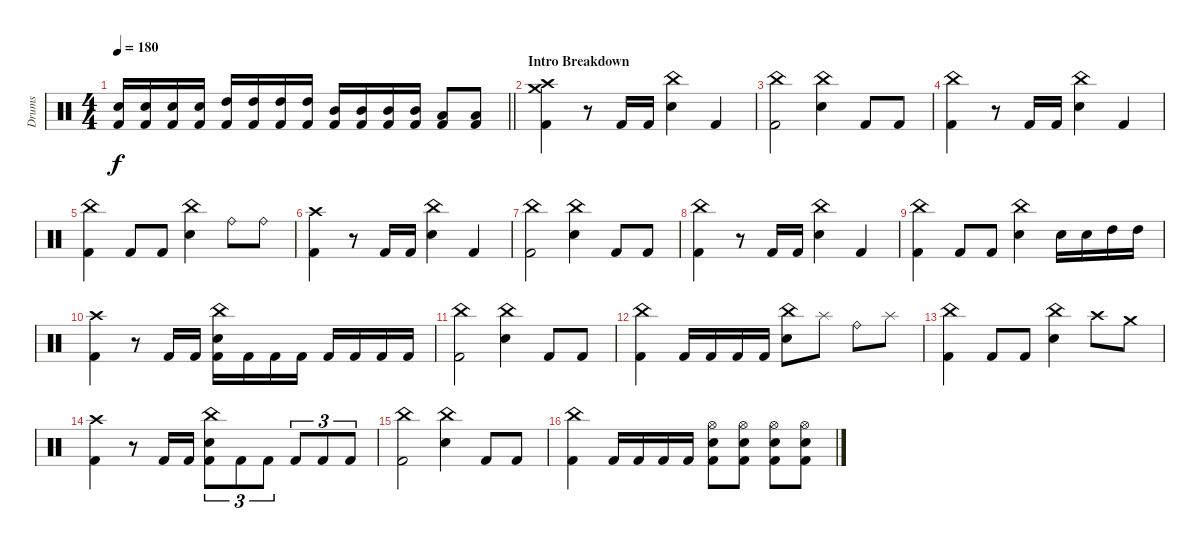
\track ("Drums" "Drums") {instrument percussion}
\staff {score}
\articulation defaults
\ts (4 4)
\tempo 180
\clef neutral
\barLineRight lightlight
\ks c
("Snare (hit) 2" "Kick (hit) 2").16{dy f} ("Snare (hit) 2" "Kick (hit) 2").16 ("Snare (hit) 2" "Kick (hit) 2").16 ("Snare (hit) 2" "Kick (hit) 2").16 ("High Tom (hit)" "Kick (hit) 2").16 ("High Tom (hit)" "Kick (hit) 2").16 ("High Tom (hit)" "Kick (hit) 2").16 ("High Tom (hit)" "Kick (hit) 2").16 ("Mid Tom (hit)" "Kick (hit) 2").16 ("Mid Tom (hit)" "Kick (hit) 2").16 ("Mid Tom (hit)" "Kick (hit) 2").16 ("Mid Tom (hit)" "Kick (hit) 2").16 ("Low Tom (hit)" "Kick (hit) 2").8 ("Low Tom (hit)" "Kick (hit) 2").8 |
\section ("" "Intro Breakdown")
("Crash high (hit)" "Crash medium (hit)" "Kick (hit) 2").4 r.8 "Kick (hit) 2".16 "Kick (hit) 2".16 ("China (hit)" "Snare (hit) 2").4 "Kick (hit) 2".4 |
("China (hit)" "Kick (hit) 2").2 ("China (hit)" "Snare (hit) 2").4 "Kick (hit) 2".8 "Kick (hit) 2".8 |
("China (hit)" "Kick (hit) 2").4 r.8 "Kick (hit) 2".16 "Kick (hit) 2".16 ("China (hit)" "Snare (hit) 2").4 "Kick (hit) 2".4 |
("China (hit)" "Kick (hit) 2").4 "Kick (hit) 2".8 "Kick (hit) 2".8 ("China (hit)" "Snare (hit) 2").4 "Ride (bell)".8 "Ride (bell)".8 |
("Crash high (hit)" "Kick (hit) 2").4 r.8 "Kick (hit) 2".16 "Kick (hit) 2".16 ("China (hit)" "Snare (hit) 2").4 "Kick (hit) 2".4 |
("China (hit)" "Kick (hit) 2").2 ("China (hit)" "Snare (hit) 2").4 "Kick (hit) 2".8 "Kick (hit) 2".8 |
("China (hit)" "Kick (hit) 2").4 r.8 "Kick (hit) 2".16 "Kick (hit) 2".16 ("China (hit)" "Snare (hit) 2").4 "Kick (hit) 2".4 |
("China (hit)" "Kick (hit) 2").4 "Kick (hit) 2".8 "Kick (hit) 2".8 ("China (hit)" "Snare (hit) 2").4 "Snare (hit) 2".16 "Snare (hit) 2".16 "High Tom (hit)".16 "High Tom (hit)".16 |
("Crash high (hit)" "Kick (hit) 2").4 r.8 "Kick (hit) 2".16 "Kick (hit) 2".16 ("China (hit)" "Snare (hit) 2" "Kick (hit) 2").16 "Kick (hit) 2".16 "Kick (hit) 2".16 "Kick (hit) 2".16 "Kick (hit) 2".16 "Kick (hit) 2".16 "Kick (hit) 2".16 "Kick (hit) 2".16 |
("China (hit)" "Kick (hit) 2").2 ("China (hit)" "Snare (hit) 2").4 "Kick (hit) 2".8 "Kick (hit) 2".8 |
("China (hit)" "Kick (hit) 2").4 "Kick (hit) 2".16 "Kick (hit) 2".16 "Kick (hit) 2".16 "Kick (hit) 2".16 ("China (hit)" "Snare (hit) 2").8 "Splash (hit)".8 "Ride (bell)".8 "Splash (hit)".8 |
("China (hit)" "Kick (hit) 2").4 "Kick (hit) 2".8 "Kick (hit) 2".8 ("China (hit)" "Snare (hit) 2").4 "Crash high (hit)".8 "Crash medium (hit)".8 |
("Crash high (hit)" "Kick (hit) 2").4 r.8 "Kick (hit) 2".16 "Kick (hit) 2".16 ("China (hit)" "Snare (hit) 2" "Kick (hit) 2").8{tu (3 2)} "Kick (hit) 2".8{tu (3 2)} "Kick (hit) 2".8{tu (3 2)} "Kick (hit) 2".8{tu (3 2)} "Kick (hit) 2".8{tu (3 2)} "Kick (hit) 2".8{tu (3 2)} |
("China (hit)" "Kick (hit) 2").2 ("China (hit)" "Snare (hit) 2").4 "Kick (hit) 2".8 "Kick (hit) 2".8 |
("China (hit)" "Kick (hit) 2").4 "Kick (hit) 2".16 "Kick (hit) 2".16 "Kick (hit) 2".16 "Kick (hit) 2".16 ("Hi-Hat (open)" "Snare (hit) 2" "Kick (hit) 2").8 ("Hi-Hat (open)" "Snare (hit) 2" "Kick (hit) 2").8 ("Hi-Hat (open)" "Snare (hit) 2" "Kick (hit) 2").8 ("Hi-Hat (open)" "Snare (hit) 2" "Kick (hit) 2").8
